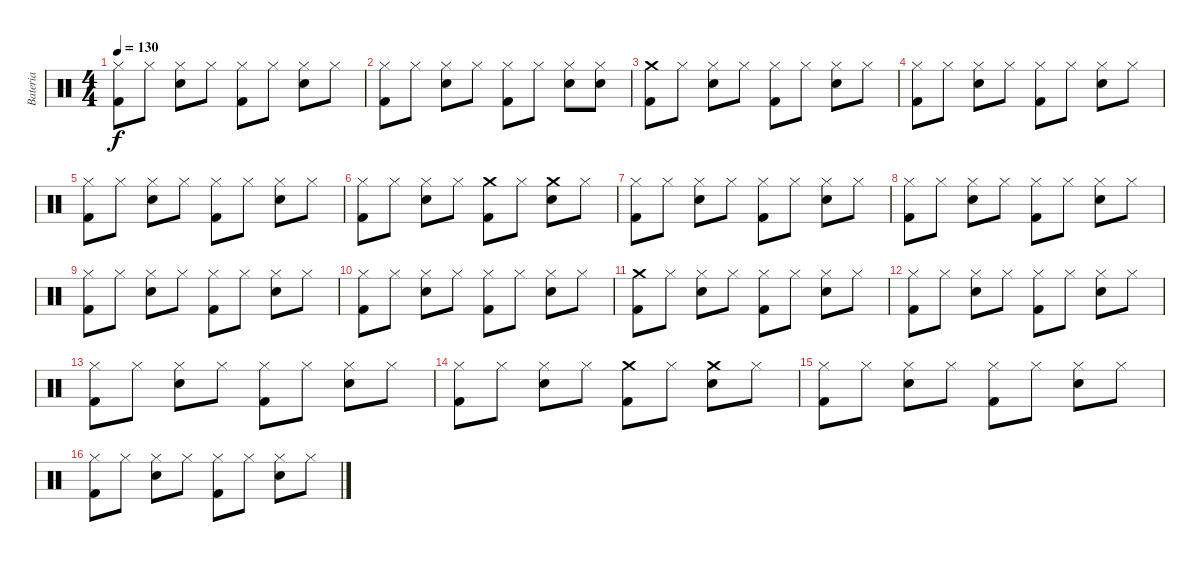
\track ("Bateria" "Bateria") {instrument percussion}
\staff {score}
\articulation defaults
\ts (4 4)
\tempo 130
\clef neutral
\ks c
("Hi-Hat (closed)" "Kick (hit) 2").8{dy f} "Hi-Hat (closed)".8 ("Hi-Hat (closed)" "Electric Snare (hit)").8 "Hi-Hat (closed)".8 ("Hi-Hat (closed)" "Kick (hit) 2").8 "Hi-Hat (closed)".8 ("Hi-Hat (closed)" "Electric Snare (hit)").8 "Hi-Hat (closed)".8 |
("Hi-Hat (closed)" "Kick (hit) 2").8 "Hi-Hat (closed)".8 ("Hi-Hat (closed)" "Electric Snare (hit)").8 "Hi-Hat (closed)".8 ("Hi-Hat (closed)" "Kick (hit) 2").8 "Hi-Hat (closed)".8 ("Hi-Hat (closed)" "Electric Snare (hit)").8 ("Hi-Hat (closed)" "Electric Snare (hit)").8 |
("Crash medium (hit)" "Kick (hit) 2").8 "Hi-Hat (closed)".8 ("Hi-Hat (closed)" "Electric Snare (hit)").8 "Hi-Hat (closed)".8 ("Hi-Hat (closed)" "Kick (hit) 2").8 "Hi-Hat (closed)".8 ("Hi-Hat (closed)" "Electric Snare (hit)").8 "Hi-Hat (closed)".8 |
("Hi-Hat (closed)" "Kick (hit) 2").8 "Hi-Hat (closed)".8 ("Hi-Hat (closed)" "Electric Snare (hit)").8 "Hi-Hat (closed)".8 ("Hi-Hat (closed)" "Kick (hit) 2").8 "Hi-Hat (closed)".8 ("Hi-Hat (closed)" "Electric Snare (hit)").8 "Hi-Hat (closed)".8 |
("Hi-Hat (closed)" "Kick (hit) 2").8 "Hi-Hat (closed)".8 ("Hi-Hat (closed)" "Electric Snare (hit)").8 "Hi-Hat (closed)".8 ("Hi-Hat (closed)" "Kick (hit) 2").8 "Hi-Hat (closed)".8 ("Hi-Hat (closed)" "Electric Snare (hit)").8 "Hi-Hat (closed)".8 |
("Hi-Hat (closed)" "Kick (hit) 2").8 "Hi-Hat (closed)".8 ("Hi-Hat (closed)" "Electric Snare (hit)").8 "Hi-Hat (closed)".8 ("Crash medium (hit)" "Kick (hit) 2").8 "Hi-Hat (closed)".8 ("Crash medium (hit)" "Electric Snare (hit)").8 "Hi-Hat (closed)".8 |
("Hi-Hat (closed)" "Kick (hit) 2").8 "Hi-Hat (closed)".8 ("Hi-Hat (closed)" "Electric Snare (hit)").8 "Hi-Hat (closed)".8 ("Hi-Hat (closed)" "Kick (hit) 2").8 "Hi-Hat (closed)".8 ("Hi-Hat (closed)" "Electric Snare (hit)").8 "Hi-Hat (closed)".8 |
("Hi-Hat (closed)" "Kick (hit) 2").8 "Hi-Hat (closed)".8 ("Hi-Hat (closed)" "Electric Snare (hit)").8 "Hi-Hat (closed)".8 ("Hi-Hat (closed)" "Kick (hit) 2").8 "Hi-Hat (closed)".8 ("Hi-Hat (closed)" "Electric Snare (hit)").8 "Hi-Hat (closed)".8 |
("Hi-Hat (closed)" "Kick (hit) 2").8 "Hi-Hat (closed)".8 ("Hi-Hat (closed)" "Electric Snare (hit)").8 "Hi-Hat (closed)".8 ("Hi-Hat (closed)" "Kick (hit) 2").8 "Hi-Hat (closed)".8 ("Hi-Hat (closed)" "Electric Snare (hit)").8 "Hi-Hat (closed)".8 |
("Hi-Hat (closed)" "Kick (hit) 2").8 "Hi-Hat (closed)".8 ("Hi-Hat (closed)" "Electric Snare (hit)").8 "Hi-Hat (closed)".8 ("Hi-Hat (closed)" "Kick (hit) 2").8 "Hi-Hat (closed)".8 ("Hi-Hat (closed)" "Electric Snare (hit)").8 "Hi-Hat (closed)".8 |
("Crash medium (hit)" "Kick (hit) 2").8 "Hi-Hat (closed)".8 ("Hi-Hat (closed)" "Electric Snare (hit)").8 "Hi-Hat (closed)".8 ("Hi-Hat (closed)" "Kick (hit) 2").8 "Hi-Hat (closed)".8 ("Hi-Hat (closed)" "Electric Snare (hit)").8 "Hi-Hat (closed)".8 |
("Hi-Hat (closed)" "Kick (hit) 2").8 "Hi-Hat (closed)".8 ("Hi-Hat (closed)" "Electric Snare (hit)").8 "Hi-Hat (closed)".8 ("Hi-Hat (closed)" "Kick (hit) 2").8 "Hi-Hat (closed)".8 ("Hi-Hat (closed)" "Electric Snare (hit)").8 "Hi-Hat (closed)".8 |
("Hi-Hat (closed)" "Kick (hit) 2").8 "Hi-Hat (closed)".8 ("Hi-Hat (closed)" "Electric Snare (hit)").8 "Hi-Hat (closed)".8 ("Hi-Hat (closed)" "Kick (hit) 2").8 "Hi-Hat (closed)".8 ("Hi-Hat (closed)" "Electric Snare (hit)").8 "Hi-Hat (closed)".8 |
("Hi-Hat (closed)" "Kick (hit) 2").8 "Hi-Hat (closed)".8 ("Hi-Hat (closed)" "Electric Snare (hit)").8 "Hi-Hat (closed)".8 ("Crash medium (hit)" "Kick (hit) 2").8 "Hi-Hat (closed)".8 ("Crash medium (hit)" "Electric Snare (hit)").8 "Hi-Hat (closed)".8 |
("Hi-Hat (closed)" "Kick (hit) 2").8 "Hi-Hat (closed)".8 ("Hi-Hat (closed)" "Electric Snare (hit)").8 "Hi-Hat (closed)".8 ("Hi-Hat (closed)" "Kick (hit) 2").8 "Hi-Hat (closed)".8 ("Hi-Hat (closed)" "Electric Snare (hit)").8 "Hi-Hat (closed)".8 |
("Hi-Hat (closed)" "Kick (hit) 2").8 "Hi-Hat (closed)".8 ("Hi-Hat (closed)" "Electric Snare (hit)").8 "Hi-Hat (closed)".8 ("Hi-Hat (closed)" "Kick (hit) 2").8 "Hi-Hat (closed)".8 ("Hi-Hat (closed)" "Electric Snare (hit)").8 "Hi-Hat (closed)".8
